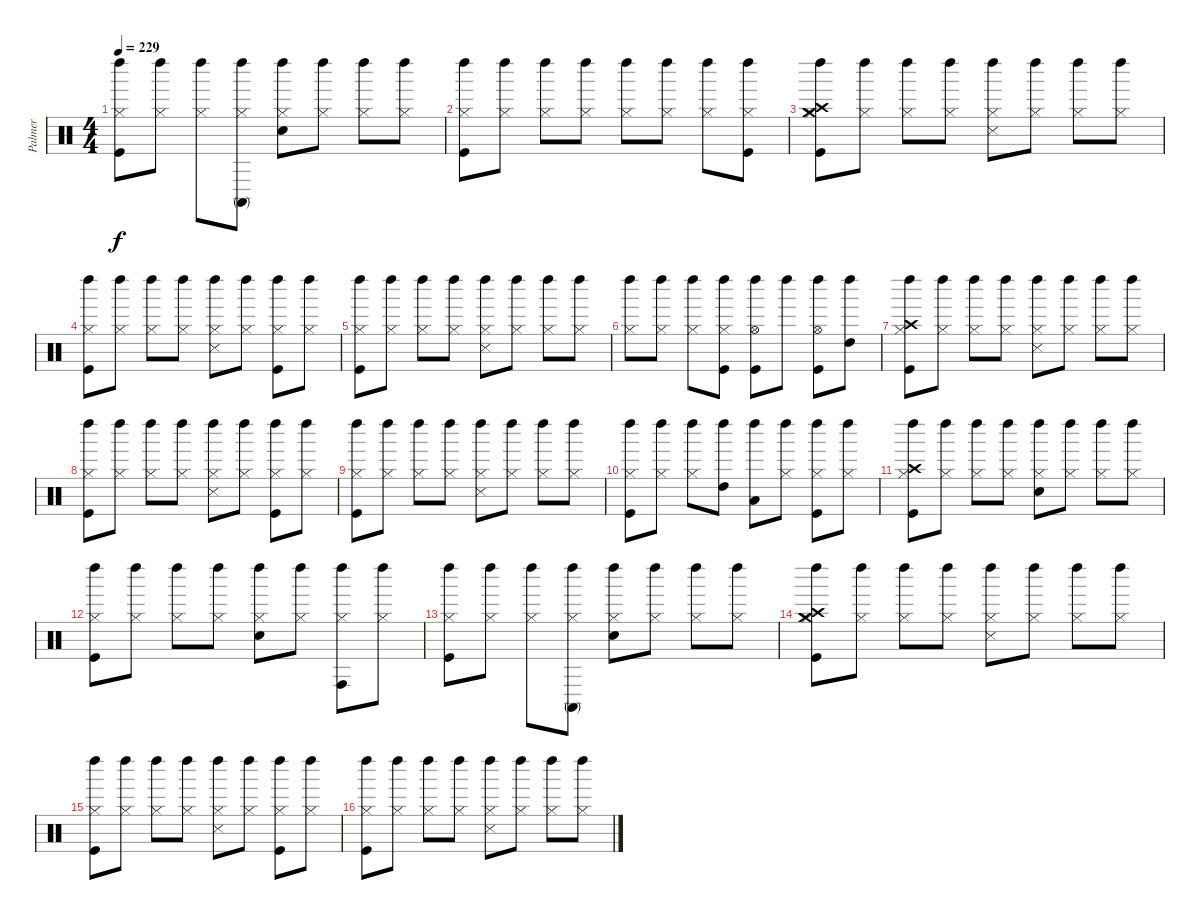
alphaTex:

\track ("Palmer" "Palmer") {instrument percussion}
\staff {score}
\articulation defaults
\ts (4 4)
\tempo 229
\clef neutral
\ks c
("Kick (hit)" "Hi-Hat (closed)" "Left Maraca (hit)").8{dy f} ("Hi-Hat (closed)" "Left Maraca (hit)").8 ("Hi-Hat (closed)" "Left Maraca (hit)").8 ("Hi-Hat (closed)" "Conga high (mute)" "Left Maraca (hit)").8 ("Snare (hit) 2" "Hi-Hat (closed)" "Left Maraca (hit)").8 ("Hi-Hat (closed)" "Left Maraca (hit)").8 ("Hi-Hat (closed)" "Left Maraca (hit)").8 ("Hi-Hat (closed)" "Left Maraca (hit)").8 |
("Kick (hit)" "Hi-Hat (closed)" "Left Maraca (hit)").8 ("Hi-Hat (closed)" "Left Maraca (hit)").8 ("Hi-Hat (closed)" "Left Maraca (hit)").8 ("Hi-Hat (closed)" "Left Maraca (hit)").8 ("Hi-Hat (closed)" "Left Maraca (hit)").8 ("Hi-Hat (closed)" "Left Maraca (hit)").8 ("Hi-Hat (closed)" "Left Maraca (hit)").8 ("Kick (hit)" "Hi-Hat (closed)" "Left Maraca (hit)").8 |
("Crash medium (hit)" "Kick (hit)" "Hi-Hat (closed)" "Crash high (hit)" "Left Maraca (hit)").8 ("Hi-Hat (closed)" "Left Maraca (hit)").8 ("Hi-Hat (closed)" "Left Maraca (hit)").8 ("Hi-Hat (closed)" "Left Maraca (hit)").8 ("Hi-Hat (closed)" "Snare (side stick) 3" "Left Maraca (hit)").8 ("Hi-Hat (closed)" "Left Maraca (hit)").8 ("Hi-Hat (closed)" "Left Maraca (hit)").8 ("Hi-Hat (closed)" "Left Maraca (hit)").8 |
("Kick (hit)" "Hi-Hat (closed)" "Left Maraca (hit)").8 ("Hi-Hat (closed)" "Left Maraca (hit)").8 ("Hi-Hat (closed)" "Left Maraca (hit)").8 ("Hi-Hat (closed)" "Left Maraca (hit)").8 ("Hi-Hat (closed)" "Snare (side stick) 3" "Left Maraca (hit)").8 ("Hi-Hat (closed)" "Left Maraca (hit)").8 ("Kick (hit)" "Hi-Hat (closed)" "Left Maraca (hit)").8 ("Hi-Hat (closed)" "Left Maraca (hit)").8 |
("Kick (hit)" "Hi-Hat (closed)" "Left Maraca (hit)").8 ("Hi-Hat (closed)" "Left Maraca (hit)").8 ("Hi-Hat (closed)" "Left Maraca (hit)").8 ("Hi-Hat (closed)" "Left Maraca (hit)").8 ("Hi-Hat (closed)" "Snare (side stick) 3" "Left Maraca (hit)").8 ("Hi-Hat (closed)" "Left Maraca (hit)").8 ("Hi-Hat (closed)" "Left Maraca (hit)").8 ("Hi-Hat (closed)" "Left Maraca (hit)").8 |
("Hi-Hat (closed)" "Left Maraca (hit)").8 ("Hi-Hat (closed)" "Left Maraca (hit)").8 ("Hi-Hat (closed)" "Left Maraca (hit)").8 ("Kick (hit)" "Hi-Hat (closed)" "Left Maraca (hit)").8 ("Kick (hit)" "Hi-Hat (open)" "Left Maraca (hit)").8 "Left Maraca (hit)".8 ("Kick (hit)" "Hi-Hat (open)" "Left Maraca (hit)").8 ("High Tom (hit)" "Left Maraca (hit)").8 |
("Kick (hit)" "Hi-Hat (closed)" "Crash high (hit)" "Left Maraca (hit)").8 ("Hi-Hat (closed)" "Left Maraca (hit)").8 ("Hi-Hat (closed)" "Left Maraca (hit)").8 ("Hi-Hat (closed)" "Left Maraca (hit)").8 ("Hi-Hat (closed)" "Snare (side stick) 3" "Left Maraca (hit)").8 ("Hi-Hat (closed)" "Left Maraca (hit)").8 ("Hi-Hat (closed)" "Left Maraca (hit)").8 ("Hi-Hat (closed)" "Left Maraca (hit)").8 |
("Kick (hit)" "Hi-Hat (closed)" "Left Maraca (hit)").8 ("Hi-Hat (closed)" "Left Maraca (hit)").8 ("Hi-Hat (closed)" "Left Maraca (hit)").8 ("Hi-Hat (closed)" "Left Maraca (hit)").8 ("Hi-Hat (closed)" "Snare (side stick) 3" "Left Maraca (hit)").8 ("Hi-Hat (closed)" "Left Maraca (hit)").8 ("Kick (hit)" "Hi-Hat (closed)" "Left Maraca (hit)").8 ("Hi-Hat (closed)" "Left Maraca (hit)").8 |
("Kick (hit)" "Hi-Hat (closed)" "Left Maraca (hit)").8 ("Hi-Hat (closed)" "Left Maraca (hit)").8 ("Hi-Hat (closed)" "Left Maraca (hit)").8 ("Hi-Hat (closed)" "Left Maraca (hit)").8 ("Hi-Hat (closed)" "Snare (side stick) 3" "Left Maraca (hit)").8 ("Hi-Hat (closed)" "Left Maraca (hit)").8 ("Hi-Hat (closed)" "Left Maraca (hit)").8 ("Hi-Hat (closed)" "Left Maraca (hit)").8 |
("Kick (hit)" "Hi-Hat (closed)" "Left Maraca (hit)").8 ("Hi-Hat (closed)" "Left Maraca (hit)").8 ("Hi-Hat (closed)" "Left Maraca (hit)").8 ("High Tom (hit)" "Left Maraca (hit)").8 ("Low Tom (hit)" "Left Maraca (hit)").8 ("Hi-Hat (closed)" "Left Maraca (hit)").8 ("Kick (hit)" "Hi-Hat (closed)" "Left Maraca (hit)").8 ("Hi-Hat (closed)" "Left Maraca (hit)").8 |
("Kick (hit)" "Hi-Hat (closed)" "Crash high (hit)" "Left Maraca (hit)").8 ("Hi-Hat (closed)" "Left Maraca (hit)").8 ("Hi-Hat (closed)" "Left Maraca (hit)").8 ("Hi-Hat (closed)" "Left Maraca (hit)").8 ("Snare (hit) 2" "Hi-Hat (closed)" "Left Maraca (hit)").8 ("Hi-Hat (closed)" "Left Maraca (hit)").8 ("Hi-Hat (closed)" "Left Maraca (hit)").8 ("Hi-Hat (closed)" "Left Maraca (hit)").8 |
("Kick (hit)" "Hi-Hat (closed)" "Left Maraca (hit)").8 ("Hi-Hat (closed)" "Left Maraca (hit)").8 ("Hi-Hat (closed)" "Left Maraca (hit)").8 ("Hi-Hat (closed)" "Left Maraca (hit)").8 ("Snare (hit) 2" "Hi-Hat (closed)" "Left Maraca (hit)").8 ("Hi-Hat (closed)" "Left Maraca (hit)").8 ("Hi-Hat (closed)" "Conga high (hit)" "Left Maraca (hit)").8 ("Hi-Hat (closed)" "Left Maraca (hit)").8 |
("Kick (hit)" "Hi-Hat (closed)" "Left Maraca (hit)").8 ("Hi-Hat (closed)" "Left Maraca (hit)").8 ("Hi-Hat (closed)" "Left Maraca (hit)").8 ("Hi-Hat (closed)" "Conga high (mute)" "Left Maraca (hit)").8 ("Snare (hit) 2" "Hi-Hat (closed)" "Left Maraca (hit)").8 ("Hi-Hat (closed)" "Left Maraca (hit)").8 ("Hi-Hat (closed)" "Left Maraca (hit)").8 ("Hi-Hat (closed)" "Left Maraca (hit)").8 |
("Crash medium (hit)" "Kick (hit)" "Hi-Hat (closed)" "Crash high (hit)" "Left Maraca (hit)").8 ("Hi-Hat (closed)" "Left Maraca (hit)").8 ("Hi-Hat (closed)" "Left Maraca (hit)").8 ("Hi-Hat (closed)" "Left Maraca (hit)").8 ("Hi-Hat (closed)" "Snare (side stick) 3" "Left Maraca (hit)").8 ("Hi-Hat (closed)" "Left Maraca (hit)").8 ("Hi-Hat (closed)" "Left Maraca (hit)").8 ("Hi-Hat (closed)" "Left Maraca (hit)").8 |
("Kick (hit)" "Hi-Hat (closed)" "Left Maraca (hit)").8 ("Hi-Hat (closed)" "Left Maraca (hit)").8 ("Hi-Hat (closed)" "Left Maraca (hit)").8 ("Hi-Hat (closed)" "Left Maraca (hit)").8 ("Hi-Hat (closed)" "Snare (side stick) 3" "Left Maraca (hit)").8 ("Hi-Hat (closed)" "Left Maraca (hit)").8 ("Kick (hit)" "Hi-Hat (closed)" "Left Maraca (hit)").8 ("Hi-Hat (closed)" "Left Maraca (hit)").8 |
("Kick (hit)" "Hi-Hat (closed)" "Left Maraca (hit)").8 ("Hi-Hat (closed)" "Left Maraca (hit)").8 ("Hi-Hat (closed)" "Left Maraca (hit)").8 ("Hi-Hat (closed)" "Left Maraca (hit)").8 ("Hi-Hat (closed)" "Snare (side stick) 3" "Left Maraca (hit)").8 ("Hi-Hat (closed)" "Left Maraca (hit)").8 ("Hi-Hat (closed)" "Left Maraca (hit)").8 ("Hi-Hat (closed)" "Left Maraca (hit)").8
